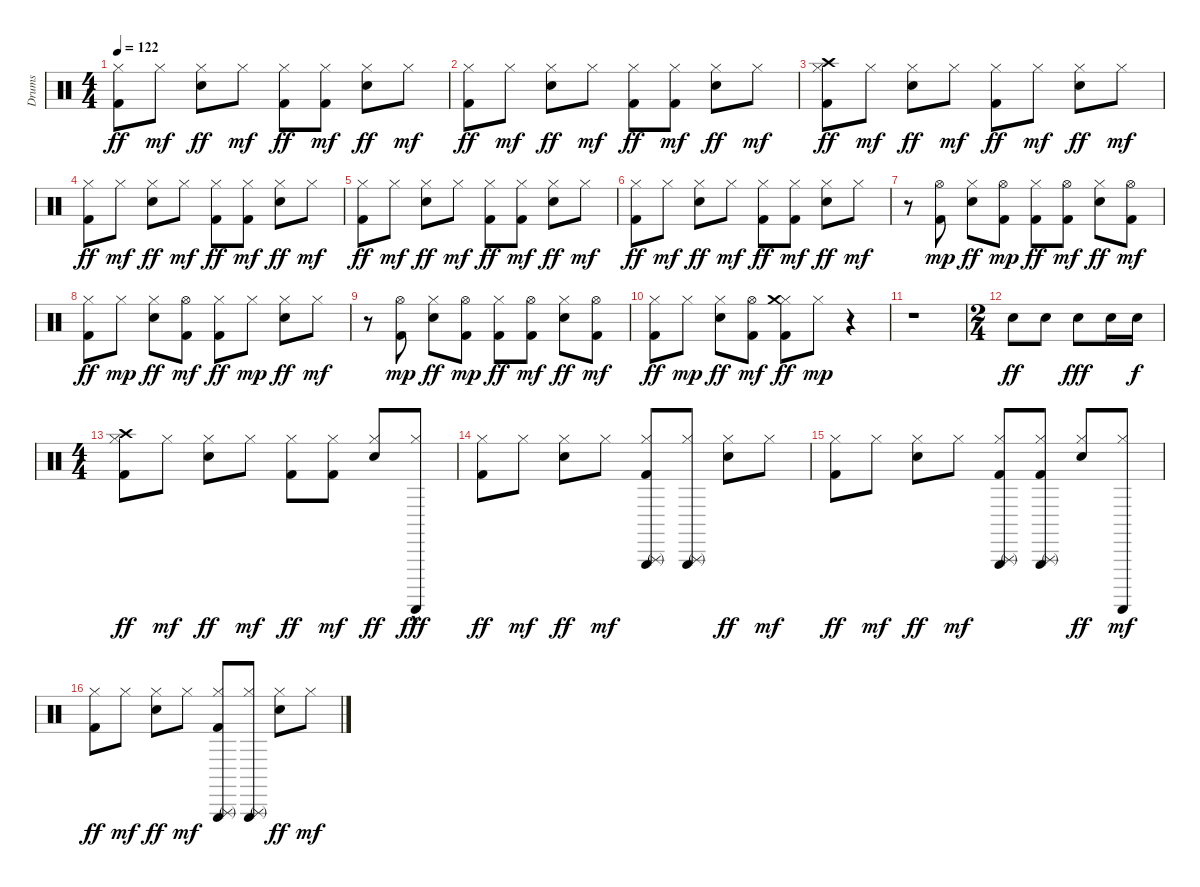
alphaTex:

\track ("Drums" "Drums") {instrument percussion}
\staff {score}
\articulation defaults
\ts (4 4)
\tempo 122
\clef neutral
\ks c
("Kick (hit) 2" "Hi-Hat (closed)").8{dy ff} "Hi-Hat (closed)".8{dy mf} ("Snare (hit) 2" "Hi-Hat (closed)").8{dy ff} "Hi-Hat (closed)".8{dy mf} ("Kick (hit) 2" "Hi-Hat (closed)").8{dy ff} ("Kick (hit) 2" "Hi-Hat (closed)").8{dy mf} ("Snare (hit) 2" "Hi-Hat (closed)").8{dy ff} "Hi-Hat (closed)".8{dy mf} |
("Kick (hit) 2" "Hi-Hat (closed)").8{dy ff} "Hi-Hat (closed)".8{dy mf} ("Snare (hit) 2" "Hi-Hat (closed)").8{dy ff} "Hi-Hat (closed)".8{dy mf} ("Kick (hit) 2" "Hi-Hat (closed)").8{dy ff} ("Kick (hit) 2" "Hi-Hat (closed)").8{dy mf} ("Snare (hit) 2" "Hi-Hat (closed)").8{dy ff} "Hi-Hat (closed)".8{dy mf} |
("Kick (hit) 2" "Hi-Hat (closed)" "Crash high (hit)").8{dy ff} "Hi-Hat (closed)".8{dy mf} ("Snare (hit) 2" "Hi-Hat (closed)").8{dy ff} "Hi-Hat (closed)".8{dy mf} ("Kick (hit) 2" "Hi-Hat (closed)").8{dy ff} "Hi-Hat (closed)".8{dy mf} ("Snare (hit) 2" "Hi-Hat (closed)").8{dy ff} "Hi-Hat (closed)".8{dy mf} |
("Kick (hit) 2" "Hi-Hat (closed)").8{dy ff} "Hi-Hat (closed)".8{dy mf} ("Snare (hit) 2" "Hi-Hat (closed)").8{dy ff} "Hi-Hat (closed)".8{dy mf} ("Kick (hit) 2" "Hi-Hat (closed)").8{dy ff} ("Kick (hit) 2" "Hi-Hat (closed)").8{dy mf} ("Snare (hit) 2" "Hi-Hat (closed)").8{dy ff} "Hi-Hat (closed)".8{dy mf} |
("Kick (hit) 2" "Hi-Hat (closed)").8{dy ff} "Hi-Hat (closed)".8{dy mf} ("Snare (hit) 2" "Hi-Hat (closed)").8{dy ff} "Hi-Hat (closed)".8{dy mf} ("Kick (hit) 2" "Hi-Hat (closed)").8{dy ff} ("Kick (hit) 2" "Hi-Hat (closed)").8{dy mf} ("Snare (hit) 2" "Hi-Hat (closed)").8{dy ff} "Hi-Hat (closed)".8{dy mf} |
("Kick (hit) 2" "Hi-Hat (closed)").8{dy ff} "Hi-Hat (closed)".8{dy mf} ("Snare (hit) 2" "Hi-Hat (closed)").8{dy ff} "Hi-Hat (closed)".8{dy mf} ("Kick (hit) 2" "Hi-Hat (closed)").8{dy ff} ("Kick (hit) 2" "Hi-Hat (closed)").8{dy mf} ("Snare (hit) 2" "Hi-Hat (closed)").8{dy ff} "Hi-Hat (closed)".8{dy mf} |
r.8 ("Kick (hit) 2" "Hi-Hat (open)").8{dy mp} ("Snare (hit) 2" "Hi-Hat (closed)").8{dy ff} ("Kick (hit) 2" "Hi-Hat (open)").8{dy mp} ("Kick (hit) 2" "Hi-Hat (closed)").8{dy ff} ("Kick (hit) 2" "Hi-Hat (open)").8{dy mf} ("Snare (hit) 2" "Hi-Hat (closed)").8{dy ff} ("Kick (hit) 2" "Hi-Hat (open)").8{dy mf} |
("Kick (hit) 2" "Hi-Hat (closed)").8{dy ff} "Hi-Hat (closed)".8{dy mp} ("Snare (hit) 2" "Hi-Hat (closed)").8{dy ff} ("Kick (hit) 2" "Hi-Hat (open)").8{dy mf} ("Kick (hit) 2" "Hi-Hat (closed)").8{dy ff} "Hi-Hat (closed)".8{dy mp} ("Snare (hit) 2" "Hi-Hat (closed)").8{dy ff} "Hi-Hat (closed)".8{dy mf} |
r.8 ("Kick (hit) 2" "Hi-Hat (open)").8{dy mp} ("Snare (hit) 2" "Hi-Hat (closed)").8{dy ff} ("Kick (hit) 2" "Hi-Hat (open)").8{dy mp} ("Kick (hit) 2" "Hi-Hat (closed)").8{dy ff} ("Kick (hit) 2" "Hi-Hat (open)").8{dy mf} ("Snare (hit) 2" "Hi-Hat (closed)").8{dy ff} ("Kick (hit) 2" "Hi-Hat (open)").8{dy mf} |
("Kick (hit) 2" "Hi-Hat (closed)").8{dy ff} "Hi-Hat (closed)".8{dy mp} ("Snare (hit) 2" "Hi-Hat (closed)").8{dy ff} ("Kick (hit) 2" "Hi-Hat (open)").8{dy mf} ("Kick (hit) 2" "Hi-Hat (closed)" "Crash medium (hit)").8{dy ff} "Hi-Hat (closed)".8{dy mp} r.4 |
r.1 |
\ts (2 4)
"Snare (hit) 2".8{dy ff} "Snare (hit) 2".8 "Snare (hit) 2".8{dy fff} "Snare (hit) 2".16 "Snare (hit) 2".16{dy f} |
\ts (4 4)
("Kick (hit) 2" "Hi-Hat (closed)" "Crash high (hit)").8{dy ff} "Hi-Hat (closed)".8{dy mf} ("Snare (hit) 2" "Hi-Hat (closed)").8{dy ff} "Hi-Hat (closed)".8{dy mf} ("Kick (hit) 2" "Hi-Hat (closed)").8{dy ff} ("Kick (hit) 2" "Hi-Hat (closed)").8{dy mf} ("Snare (hit) 2" "Hi-Hat (closed)").8{dy ff} ("Hi-Hat (closed)" "Guiro (scrap-return)"{hac}).8{dy fff} |
("Kick (hit) 2" "Hi-Hat (closed)").8{dy ff} "Hi-Hat (closed)".8{dy mf} ("Snare (hit) 2" "Hi-Hat (closed)").8{dy ff} "Hi-Hat (closed)".8{dy mf} ("Kick (hit) 2" "Hi-Hat (closed)" "Triangle (rnute)" "Triangle (hit)").8 ("Hi-Hat (closed)" "Triangle (rnute)" "Triangle (hit)").8 ("Snare (hit) 2" "Hi-Hat (closed)").8{dy ff} "Hi-Hat (closed)".8{dy mf} |
("Kick (hit) 2" "Hi-Hat (closed)").8{dy ff} "Hi-Hat (closed)".8{dy mf} ("Snare (hit) 2" "Hi-Hat (closed)").8{dy ff} "Hi-Hat (closed)".8{dy mf} ("Kick (hit) 2" "Hi-Hat (closed)" "Triangle (rnute)" "Triangle (hit)").8 ("Kick (hit) 2" "Hi-Hat (closed)" "Triangle (rnute)" "Triangle (hit)").8 ("Snare (hit) 2" "Hi-Hat (closed)").8{dy ff} ("Hi-Hat (closed)" "Guiro (scrap-return)").8{dy mf} |
("Kick (hit) 2" "Hi-Hat (closed)").8{dy ff} "Hi-Hat (closed)".8{dy mf} ("Snare (hit) 2" "Hi-Hat (closed)").8{dy ff} "Hi-Hat (closed)".8{dy mf} ("Kick (hit) 2" "Hi-Hat (closed)" "Triangle (rnute)" "Triangle (hit)").8 ("Hi-Hat (closed)" "Triangle (rnute)" "Triangle (hit)").8 ("Snare (hit) 2" "Hi-Hat (closed)").8{dy ff} "Hi-Hat (closed)".8{dy mf}
